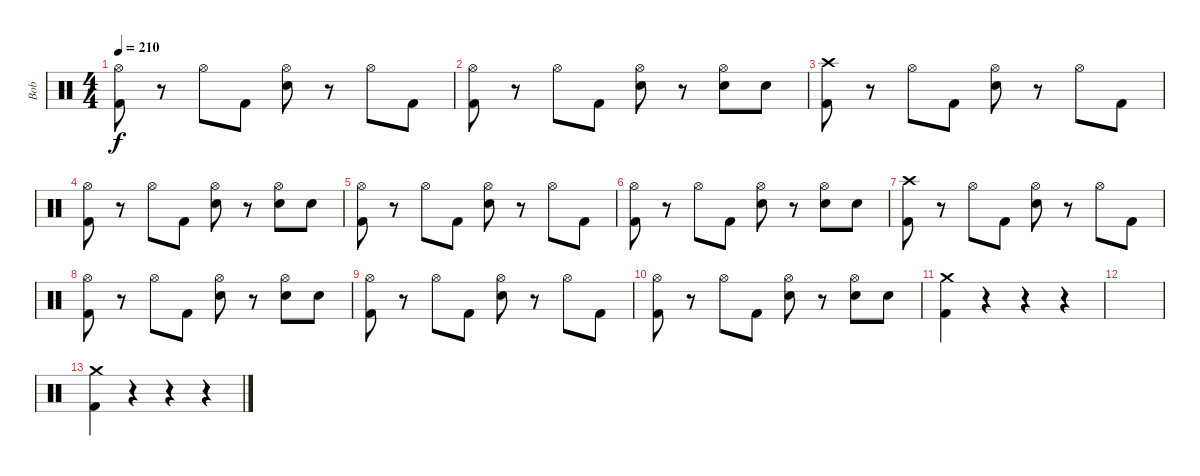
\track ("Bob" "Bob") {instrument percussion}
\staff {score}
\articulation defaults
\ts (4 4)
\tempo 210
\clef neutral
\ks c
("Hi-Hat (open)" "Kick (hit) 2").8{dy f} r.8 "Hi-Hat (open)".8 "Kick (hit) 2".8 ("Hi-Hat (open)" "Electric Snare (hit)").8 r.8 "Hi-Hat (open)".8 "Kick (hit) 2".8 |
("Hi-Hat (open)" "Kick (hit) 2").8 r.8 "Hi-Hat (open)".8 "Kick (hit) 2".8 ("Hi-Hat (open)" "Electric Snare (hit)").8 r.8 ("Hi-Hat (open)" "Electric Snare (hit)").8 "Electric Snare (hit)".8 |
("Crash high (hit)" "Kick (hit) 2").8 r.8 "Hi-Hat (open)".8 "Kick (hit) 2".8 ("Hi-Hat (open)" "Electric Snare (hit)").8 r.8 "Hi-Hat (open)".8 "Kick (hit) 2".8 |
("Hi-Hat (open)" "Kick (hit) 2").8 r.8 "Hi-Hat (open)".8 "Kick (hit) 2".8 ("Hi-Hat (open)" "Electric Snare (hit)").8 r.8 ("Hi-Hat (open)" "Electric Snare (hit)").8 "Electric Snare (hit)".8 |
("Hi-Hat (open)" "Kick (hit) 2").8 r.8 "Hi-Hat (open)".8 "Kick (hit) 2".8 ("Hi-Hat (open)" "Electric Snare (hit)").8 r.8 "Hi-Hat (open)".8 "Kick (hit) 2".8 |
("Hi-Hat (open)" "Kick (hit) 2").8 r.8 "Hi-Hat (open)".8 "Kick (hit) 2".8 ("Hi-Hat (open)" "Electric Snare (hit)").8 r.8 ("Hi-Hat (open)" "Electric Snare (hit)").8 "Electric Snare (hit)".8 |
("Crash high (hit)" "Kick (hit) 2").8 r.8 "Hi-Hat (open)".8 "Kick (hit) 2".8 ("Hi-Hat (open)" "Electric Snare (hit)").8 r.8 "Hi-Hat (open)".8 "Kick (hit) 2".8 |
("Hi-Hat (open)" "Kick (hit) 2").8 r.8 "Hi-Hat (open)".8 "Kick (hit) 2".8 ("Hi-Hat (open)" "Electric Snare (hit)").8 r.8 ("Hi-Hat (open)" "Electric Snare (hit)").8 "Electric Snare (hit)".8 |
("Hi-Hat (open)" "Kick (hit) 2").8 r.8 "Hi-Hat (open)".8 "Kick (hit) 2".8 ("Hi-Hat (open)" "Electric Snare (hit)").8 r.8 "Hi-Hat (open)".8 "Kick (hit) 2".8 |
("Hi-Hat (open)" "Kick (hit) 2").8 r.8 "Hi-Hat (open)".8 "Kick (hit) 2".8 ("Hi-Hat (open)" "Electric Snare (hit)").8 r.8 ("Hi-Hat (open)" "Electric Snare (hit)").8 "Electric Snare (hit)".8 |
("Crash medium (hit)" "Kick (hit) 2").4 r.4 r.4 r.4 |
|
("Crash medium (hit)" "Kick (hit) 2").4 r.4 r.4 r.4
